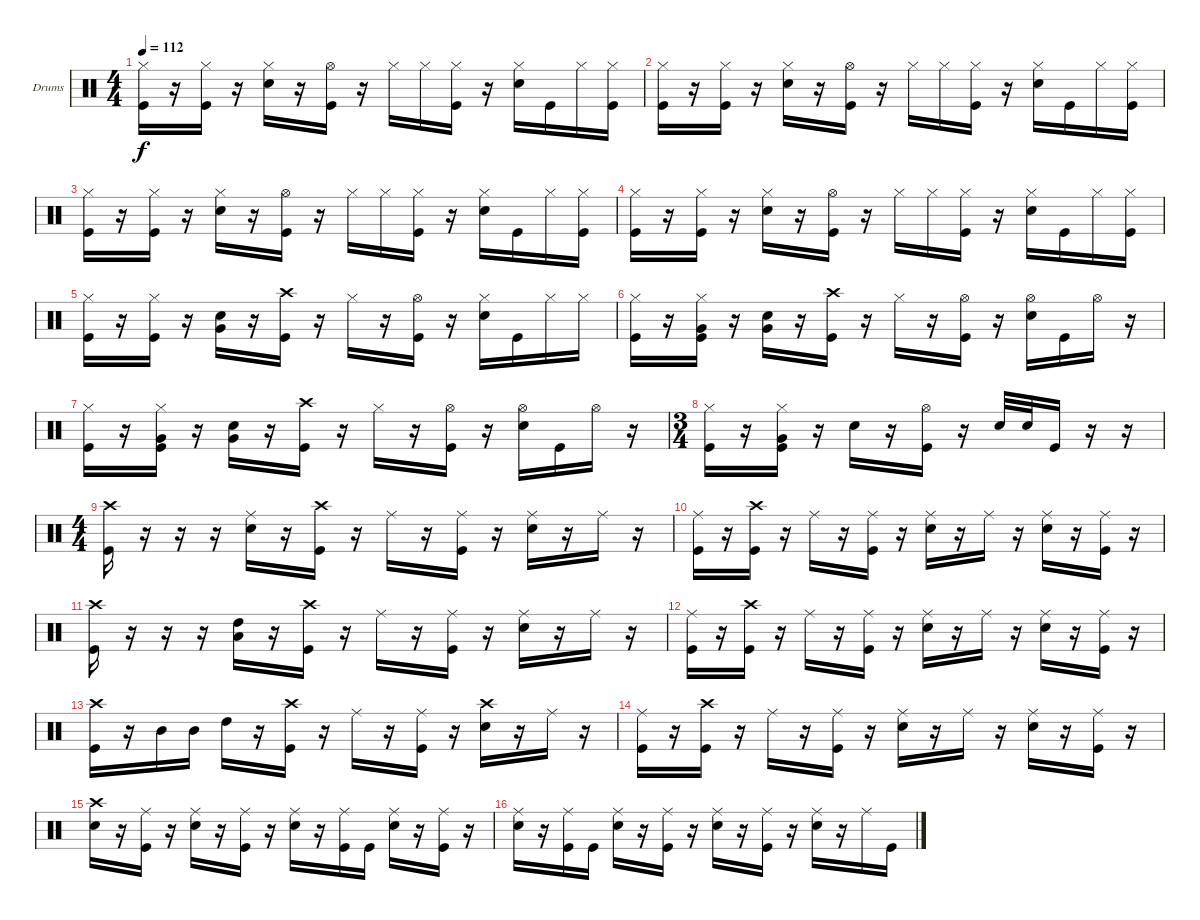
\bracketExtendMode groupsimilarinstruments
\firstSystemTrackNameOrientation horizontal
\otherSystemsTrackNameOrientation horizontal
\track ("Drumkit" "Drums") {instrument percussion}
\staff {score}
\articulation defaults
\ts (4 4)
\tempo 112
\clef neutral
\ks c
("Hi-Hat (closed)" "Kick (hit)").16{dy f} r.16 ("Hi-Hat (closed)" "Kick (hit)").16 r.16 ("Hi-Hat (closed)" "Snare (hit) 2").16 r.16 ("Hi-Hat (open)" "Kick (hit)").16 r.16 "Hi-Hat (closed)".16 "Hi-Hat (closed)".16 ("Hi-Hat (closed)" "Kick (hit)").16 r.16 ("Hi-Hat (closed)" "Snare (hit) 2").16 "Kick (hit)".16 "Hi-Hat (closed)".16 ("Hi-Hat (closed)" "Kick (hit)").16 |
("Hi-Hat (closed)" "Kick (hit)").16 r.16 ("Hi-Hat (closed)" "Kick (hit)").16 r.16 ("Hi-Hat (closed)" "Snare (hit) 2").16 r.16 ("Hi-Hat (open)" "Kick (hit)").16 r.16 "Hi-Hat (closed)".16 "Hi-Hat (closed)".16 ("Hi-Hat (closed)" "Kick (hit)").16 r.16 ("Hi-Hat (closed)" "Snare (hit) 2").16 "Kick (hit)".16 "Hi-Hat (closed)".16 ("Hi-Hat (closed)" "Kick (hit)").16 |
("Hi-Hat (closed)" "Kick (hit)").16 r.16 ("Hi-Hat (closed)" "Kick (hit)").16 r.16 ("Hi-Hat (closed)" "Snare (hit) 2").16 r.16 ("Hi-Hat (open)" "Kick (hit)").16 r.16 "Hi-Hat (closed)".16 "Hi-Hat (closed)".16 ("Hi-Hat (closed)" "Kick (hit)").16 r.16 ("Hi-Hat (closed)" "Snare (hit) 2").16 "Kick (hit)".16 "Hi-Hat (closed)".16 ("Hi-Hat (closed)" "Kick (hit)").16 |
("Hi-Hat (closed)" "Kick (hit)").16 r.16 ("Hi-Hat (closed)" "Kick (hit)").16 r.16 ("Hi-Hat (closed)" "Snare (hit) 2").16 r.16 ("Hi-Hat (open)" "Kick (hit)").16 r.16 "Hi-Hat (closed)".16 "Hi-Hat (closed)".16 ("Hi-Hat (closed)" "Kick (hit)").16 r.16 ("Hi-Hat (closed)" "Snare (hit) 2").16 "Kick (hit)".16 "Hi-Hat (closed)".16 ("Hi-Hat (closed)" "Kick (hit)").16 |
("Hi-Hat (closed)" "Kick (hit)").16 r.16 ("Hi-Hat (closed)" "Kick (hit)").16 r.16 ("Snare (hit) 2" "Very Low Tom (hit)").16 r.16 ("Crash high (hit)" "Kick (hit)").16 r.16 "Hi-Hat (closed)".16 r.16 ("Hi-Hat (open)" "Kick (hit)").16 r.16 ("Hi-Hat (closed)" "Snare (hit) 2").16 "Kick (hit)".16 "Hi-Hat (closed)".16 "Hi-Hat (closed)".16 |
("Hi-Hat (closed)" "Kick (hit)").16 r.16 ("Hi-Hat (closed)" "Very Low Tom (hit)" "Kick (hit)").16 r.16 ("Snare (hit) 2" "Very Low Tom (hit)").16 r.16 ("Crash high (hit)" "Kick (hit)").16 r.16 "Hi-Hat (closed)".16 r.16 ("Hi-Hat (open)" "Kick (hit)").16 r.16 ("Hi-Hat (open)" "Snare (hit) 2").16 "Kick (hit)".16 "Hi-Hat (open)".16 r.16 |
("Hi-Hat (closed)" "Kick (hit)").16 r.16 ("Hi-Hat (closed)" "Very Low Tom (hit)" "Kick (hit)").16 r.16 ("Snare (hit) 2" "Very Low Tom (hit)").16 r.16 ("Crash high (hit)" "Kick (hit)").16 r.16 "Hi-Hat (closed)".16 r.16 ("Hi-Hat (open)" "Kick (hit)").16 r.16 ("Hi-Hat (open)" "Snare (hit) 2").16 "Kick (hit)".16 "Hi-Hat (open)".16 r.16 |
\ts (3 4)
\beaming (8 2 2 2)
("Hi-Hat (closed)" "Kick (hit)").16 r.16 ("Hi-Hat (closed)" "Very Low Tom (hit)" "Kick (hit)").16 r.16 "Snare (hit) 2".16 r.16 ("Hi-Hat (open)" "Kick (hit)").16 r.16 "Snare (hit) 2".32 "Snare (hit) 2".32 "Kick (hit)".16 r.16 r.16 |
\ts (4 4)
\beaming (8 2 2 2 2)
("Crash high (hit)" "Kick (hit)").16 r.16 r.16 r.16 ("Ride (middle)" "Snare (hit) 2").16 r.16 ("Crash high (hit)" "Kick (hit)").16 r.16 "Ride (middle)".16 r.16 ("Ride (middle)" "Kick (hit)").16 r.16 ("Ride (middle)" "Snare (hit) 2").16 r.16 "Ride (middle)".16 r.16 |
("Ride (middle)" "Kick (hit)").16 r.16 ("Crash high (hit)" "Kick (hit)").16 r.16 "Ride (middle)".16 r.16 ("Ride (middle)" "Kick (hit)").16 r.16 ("Ride (middle)" "Snare (hit) 2").16 r.16 "Ride (middle)".16 r.16 ("Ride (middle)" "Snare (hit) 2").16 r.16 ("Ride (middle)" "Kick (hit)").16 r.16 |
("Crash high (hit)" "Kick (hit)").16 r.16 r.16 r.16 ("High Tom (hit)" "Low Tom (hit)").16 r.16 ("Crash high (hit)" "Kick (hit)").16 r.16 "Ride (middle)".16 r.16 ("Ride (middle)" "Kick (hit)").16 r.16 ("Ride (middle)" "Snare (hit) 2").16 r.16 "Ride (middle)".16 r.16 |
("Ride (middle)" "Kick (hit)").16 r.16 ("Crash high (hit)" "Kick (hit)").16 r.16 "Ride (middle)".16 r.16 ("Ride (middle)" "Kick (hit)").16 r.16 ("Ride (middle)" "Snare (hit) 2").16 r.16 "Ride (middle)".16 r.16 ("Ride (middle)" "Snare (hit) 2").16 r.16 ("Ride (middle)" "Kick (hit)").16 r.16 |
("Crash high (hit)" "Kick (hit)").16 r.16 "Mid Tom (hit)".16 "Mid Tom (hit)".16 "High Tom (hit)".16 r.16 ("Crash high (hit)" "Kick (hit)").16 r.16 "Ride (middle)".16 r.16 ("Ride (middle)" "Kick (hit)").16 r.16 ("Crash high (hit)" "Snare (hit) 2").16 r.16 "Ride (middle)".16 r.16 |
("Ride (middle)" "Kick (hit)").16 r.16 ("Crash high (hit)" "Kick (hit)").16 r.16 "Ride (middle)".16 r.16 ("Ride (middle)" "Kick (hit)").16 r.16 ("Ride (middle)" "Snare (hit) 2").16 r.16 "Ride (middle)".16 r.16 ("Ride (middle)" "Snare (hit) 2").16 r.16 ("Ride (middle)" "Kick (hit)").16 r.16 |
("Crash high (hit)" "Snare (hit) 2").16 r.16 ("Ride (middle)" "Kick (hit)").16 r.16 ("Ride (middle)" "Snare (hit) 2").16 r.16 ("Ride (middle)" "Kick (hit)").16 r.16 ("Ride (middle)" "Snare (hit) 2").16 r.16 ("Ride (middle)" "Kick (hit)").16 "Kick (hit)".16 ("Ride (middle)" "Snare (hit) 2").16 r.16 ("Ride (middle)" "Kick (hit)").16 r.16 |
("Ride (middle)" "Snare (hit) 2").16 r.16 ("Ride (middle)" "Kick (hit)").16 "Kick (hit)".16 ("Ride (middle)" "Snare (hit) 2").16 r.16 ("Ride (middle)" "Kick (hit)").16 r.16 ("Ride (middle)" "Snare (hit) 2").16 r.16 ("Ride (middle)" "Kick (hit)").16 r.16 ("Ride (middle)" "Snare (hit) 2").16 r.16 "Ride (middle)".16 "Kick (hit)".16
